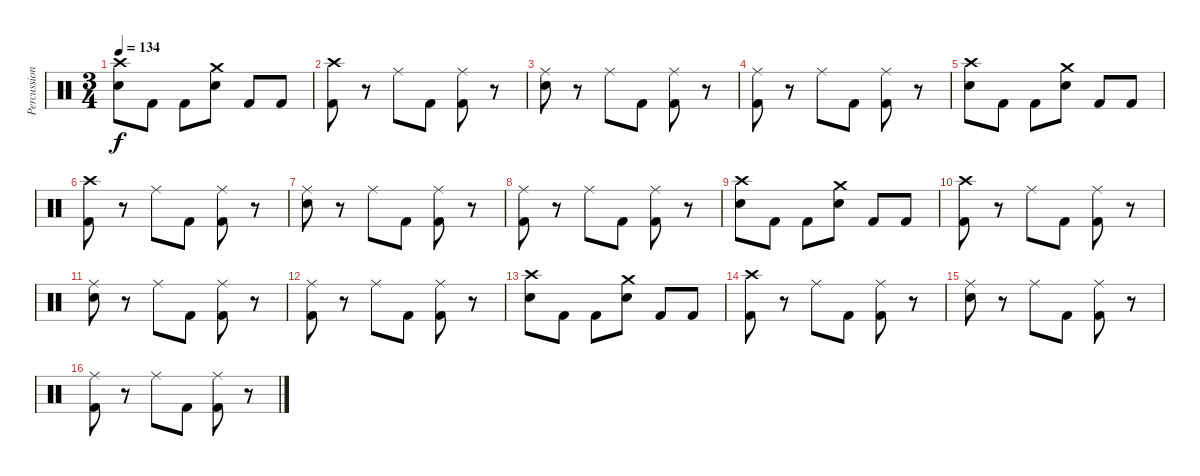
\track ("Percussion" "Percussion") {instrument percussion}
\staff {score}
\articulation defaults
\ts (3 4)
\tempo 134
\clef neutral
\ks c
("Crash high (hit)" "Snare (hit) 2").8{dy f} "Kick (hit) 2".8 "Kick (hit) 2".8 ("Crash medium (hit)" "Snare (hit) 2").8 "Kick (hit) 2".8 "Kick (hit) 2".8 |
("Crash high (hit)" "Kick (hit) 2").8 r.8 "Ride (middle)".8 "Kick (hit) 2".8 ("Ride (middle)" "Kick (hit) 2").8 r.8 |
("Ride (middle)" "Snare (hit) 2").8 r.8 "Ride (middle)".8 "Kick (hit) 2".8 ("Ride (middle)" "Kick (hit) 2").8 r.8 |
("Ride (middle)" "Kick (hit) 2").8 r.8 "Ride (middle)".8 "Kick (hit) 2".8 ("Ride (middle)" "Kick (hit) 2").8 r.8 |
("Crash high (hit)" "Snare (hit) 2").8 "Kick (hit) 2".8 "Kick (hit) 2".8 ("Crash medium (hit)" "Snare (hit) 2").8 "Kick (hit) 2".8 "Kick (hit) 2".8 |
("Crash high (hit)" "Kick (hit) 2").8 r.8 "Ride (middle)".8 "Kick (hit) 2".8 ("Ride (middle)" "Kick (hit) 2").8 r.8 |
("Ride (middle)" "Snare (hit) 2").8 r.8 "Ride (middle)".8 "Kick (hit) 2".8 ("Ride (middle)" "Kick (hit) 2").8 r.8 |
("Ride (middle)" "Kick (hit) 2").8 r.8 "Ride (middle)".8 "Kick (hit) 2".8 ("Ride (middle)" "Kick (hit) 2").8 r.8 |
("Crash high (hit)" "Snare (hit) 2").8 "Kick (hit) 2".8 "Kick (hit) 2".8 ("Crash medium (hit)" "Snare (hit) 2").8 "Kick (hit) 2".8 "Kick (hit) 2".8 |
("Crash high (hit)" "Kick (hit) 2").8 r.8 "Ride (middle)".8 "Kick (hit) 2".8 ("Ride (middle)" "Kick (hit) 2").8 r.8 |
("Ride (middle)" "Snare (hit) 2").8 r.8 "Ride (middle)".8 "Kick (hit) 2".8 ("Ride (middle)" "Kick (hit) 2").8 r.8 |
("Ride (middle)" "Kick (hit) 2").8 r.8 "Ride (middle)".8 "Kick (hit) 2".8 ("Ride (middle)" "Kick (hit) 2").8 r.8 |
("Crash high (hit)" "Snare (hit) 2").8 "Kick (hit) 2".8 "Kick (hit) 2".8 ("Crash medium (hit)" "Snare (hit) 2").8 "Kick (hit) 2".8 "Kick (hit) 2".8 |
("Crash high (hit)" "Kick (hit) 2").8 r.8 "Ride (middle)".8 "Kick (hit) 2".8 ("Ride (middle)" "Kick (hit) 2").8 r.8 |
("Ride (middle)" "Snare (hit) 2").8 r.8 "Ride (middle)".8 "Kick (hit) 2".8 ("Ride (middle)" "Kick (hit) 2").8 r.8 |
("Ride (middle)" "Kick (hit) 2").8 r.8 "Ride (middle)".8 "Kick (hit) 2".8 ("Ride (middle)" "Kick (hit) 2").8 r.8
